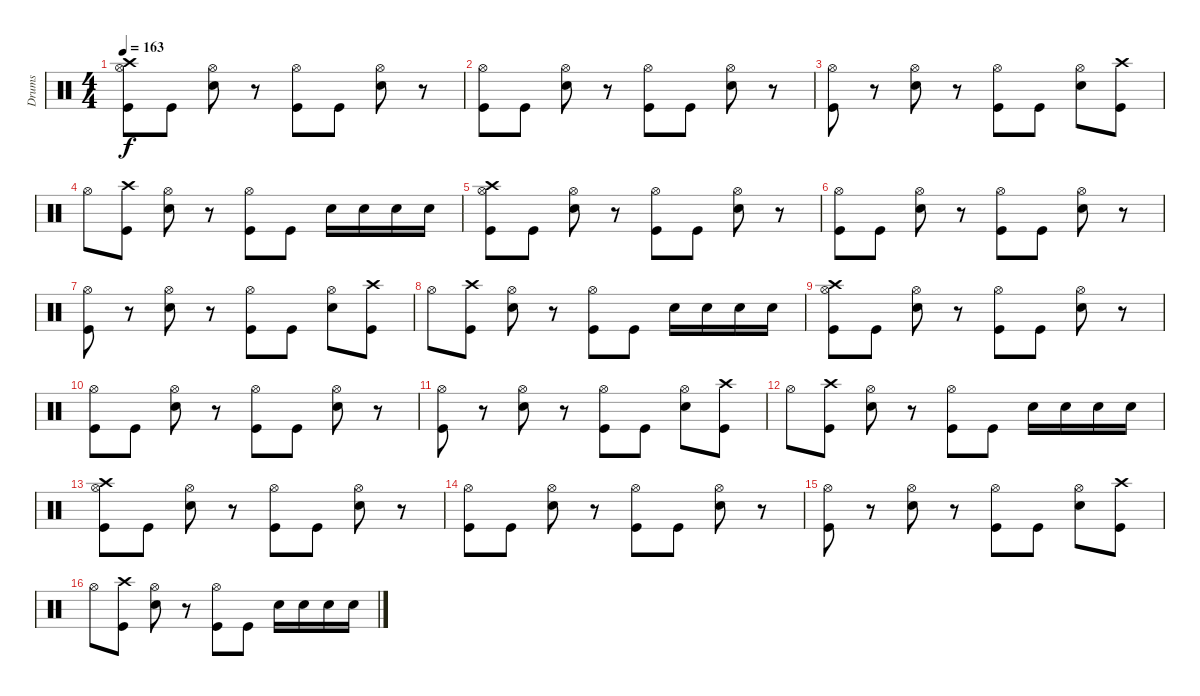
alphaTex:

\track ("Drums" "Drums") {instrument percussion}
\staff {score}
\articulation defaults
\ts (4 4)
\tempo 163
\clef neutral
\ks c
("Crash high (hit)" "Kick (hit)" "Hi-Hat (open)").8{dy f} "Kick (hit)".8 ("Electric Snare (hit)" "Hi-Hat (open)").8 r.8 ("Kick (hit)" "Hi-Hat (open)").8 "Kick (hit)".8 ("Electric Snare (hit)" "Hi-Hat (open)").8 r.8 |
("Kick (hit)" "Hi-Hat (open)").8 "Kick (hit)".8 ("Electric Snare (hit)" "Hi-Hat (open)").8 r.8 ("Kick (hit)" "Hi-Hat (open)").8 "Kick (hit)".8 ("Electric Snare (hit)" "Hi-Hat (open)").8 r.8 |
("Kick (hit)" "Hi-Hat (open)").8 r.8 ("Electric Snare (hit)" "Hi-Hat (open)").8 r.8 ("Kick (hit)" "Hi-Hat (open)").8 "Kick (hit)".8 ("Electric Snare (hit)" "Hi-Hat (open)").8 ("Kick (hit)" "Crash high (hit)").8 |
"Hi-Hat (open)".8 ("Kick (hit)" "Crash high (hit)").8 ("Electric Snare (hit)" "Hi-Hat (open)").8 r.8 ("Kick (hit)" "Hi-Hat (open)").8 "Kick (hit)".8 "Snare (hit) 2".16 "Snare (hit) 2".16 "Snare (hit) 2".16 "Snare (hit) 2".16 |
("Crash high (hit)" "Kick (hit)" "Hi-Hat (open)").8 "Kick (hit)".8 ("Electric Snare (hit)" "Hi-Hat (open)").8 r.8 ("Kick (hit)" "Hi-Hat (open)").8 "Kick (hit)".8 ("Electric Snare (hit)" "Hi-Hat (open)").8 r.8 |
("Kick (hit)" "Hi-Hat (open)").8 "Kick (hit)".8 ("Electric Snare (hit)" "Hi-Hat (open)").8 r.8 ("Kick (hit)" "Hi-Hat (open)").8 "Kick (hit)".8 ("Electric Snare (hit)" "Hi-Hat (open)").8 r.8 |
("Kick (hit)" "Hi-Hat (open)").8 r.8 ("Electric Snare (hit)" "Hi-Hat (open)").8 r.8 ("Kick (hit)" "Hi-Hat (open)").8 "Kick (hit)".8 ("Electric Snare (hit)" "Hi-Hat (open)").8 ("Kick (hit)" "Crash high (hit)").8 |
"Hi-Hat (open)".8 ("Kick (hit)" "Crash high (hit)").8 ("Electric Snare (hit)" "Hi-Hat (open)").8 r.8 ("Kick (hit)" "Hi-Hat (open)").8 "Kick (hit)".8 "Snare (hit) 2".16 "Snare (hit) 2".16 "Snare (hit) 2".16 "Snare (hit) 2".16 |
("Crash high (hit)" "Kick (hit)" "Hi-Hat (open)").8 "Kick (hit)".8 ("Electric Snare (hit)" "Hi-Hat (open)").8 r.8 ("Kick (hit)" "Hi-Hat (open)").8 "Kick (hit)".8 ("Electric Snare (hit)" "Hi-Hat (open)").8 r.8 |
("Kick (hit)" "Hi-Hat (open)").8 "Kick (hit)".8 ("Electric Snare (hit)" "Hi-Hat (open)").8 r.8 ("Kick (hit)" "Hi-Hat (open)").8 "Kick (hit)".8 ("Electric Snare (hit)" "Hi-Hat (open)").8 r.8 |
("Kick (hit)" "Hi-Hat (open)").8 r.8 ("Electric Snare (hit)" "Hi-Hat (open)").8 r.8 ("Kick (hit)" "Hi-Hat (open)").8 "Kick (hit)".8 ("Electric Snare (hit)" "Hi-Hat (open)").8 ("Kick (hit)" "Crash high (hit)").8 |
"Hi-Hat (open)".8 ("Kick (hit)" "Crash high (hit)").8 ("Electric Snare (hit)" "Hi-Hat (open)").8 r.8 ("Kick (hit)" "Hi-Hat (open)").8 "Kick (hit)".8 "Snare (hit) 2".16 "Snare (hit) 2".16 "Snare (hit) 2".16 "Snare (hit) 2".16 |
("Crash high (hit)" "Kick (hit)" "Hi-Hat (open)").8 "Kick (hit)".8 ("Electric Snare (hit)" "Hi-Hat (open)").8 r.8 ("Kick (hit)" "Hi-Hat (open)").8 "Kick (hit)".8 ("Electric Snare (hit)" "Hi-Hat (open)").8 r.8 |
("Kick (hit)" "Hi-Hat (open)").8 "Kick (hit)".8 ("Electric Snare (hit)" "Hi-Hat (open)").8 r.8 ("Kick (hit)" "Hi-Hat (open)").8 "Kick (hit)".8 ("Electric Snare (hit)" "Hi-Hat (open)").8 r.8 |
("Kick (hit)" "Hi-Hat (open)").8 r.8 ("Electric Snare (hit)" "Hi-Hat (open)").8 r.8 ("Kick (hit)" "Hi-Hat (open)").8 "Kick (hit)".8 ("Electric Snare (hit)" "Hi-Hat (open)").8 ("Kick (hit)" "Crash high (hit)").8 |
"Hi-Hat (open)".8 ("Kick (hit)" "Crash high (hit)").8 ("Electric Snare (hit)" "Hi-Hat (open)").8 r.8 ("Kick (hit)" "Hi-Hat (open)").8 "Kick (hit)".8 "Snare (hit) 2".16 "Snare (hit) 2".16 "Snare (hit) 2".16 "Snare (hit) 2".16
